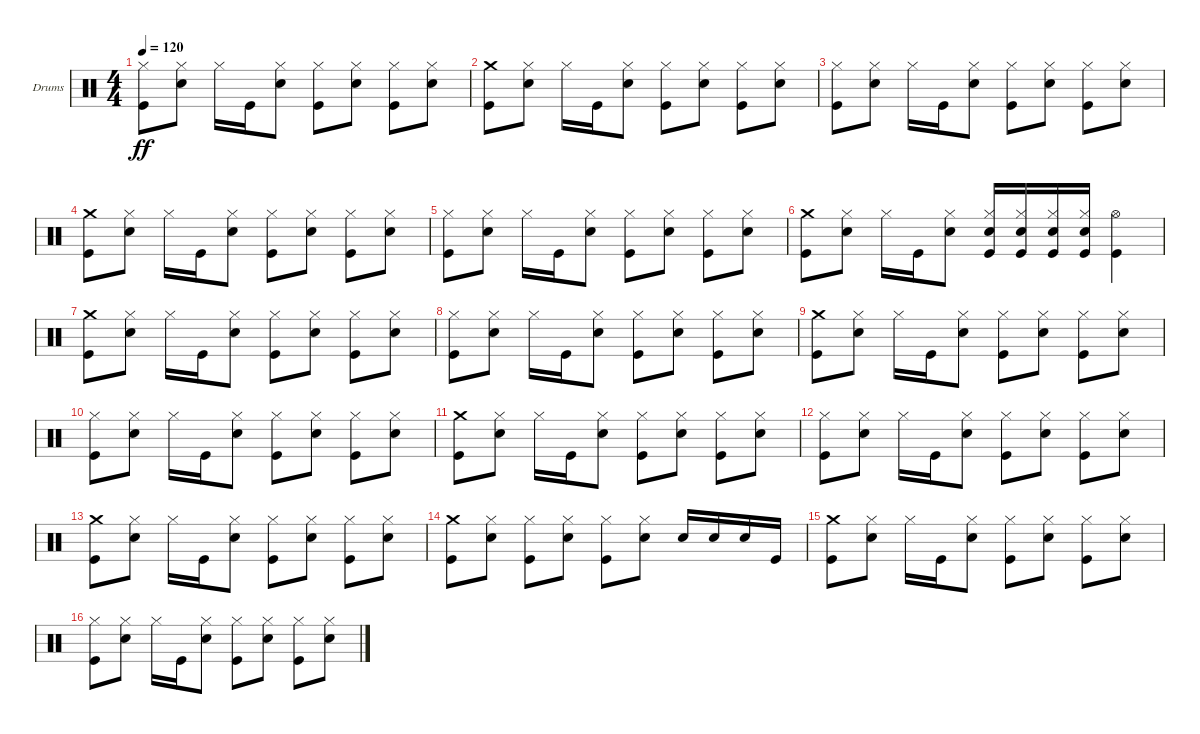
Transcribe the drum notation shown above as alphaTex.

\bracketExtendMode groupsimilarinstruments
\firstSystemTrackNameOrientation horizontal
\otherSystemsTrackNameOrientation horizontal
\track ("Drumkit" "Drums") {instrument percussion}
\staff {score}
\articulation defaults
\ts (4 4)
\tempo 120
\clef neutral
\ks c
("Kick (hit)" "Hi-Hat (closed)").8{dy ff} ("Snare (hit) 2" "Hi-Hat (closed)").8 "Hi-Hat (closed)".16 "Kick (hit)".16 ("Snare (hit) 2" "Hi-Hat (closed)").8 ("Kick (hit)" "Hi-Hat (closed)").8 ("Snare (hit) 2" "Hi-Hat (closed)").8 ("Kick (hit)" "Hi-Hat (closed)").8 ("Snare (hit) 2" "Hi-Hat (closed)").8 |
("Kick (hit)" "Crash medium (hit)").8 ("Snare (hit) 2" "Hi-Hat (closed)").8 "Hi-Hat (closed)".16 "Kick (hit)".16 ("Snare (hit) 2" "Hi-Hat (closed)").8 ("Kick (hit)" "Hi-Hat (closed)").8 ("Snare (hit) 2" "Hi-Hat (closed)").8 ("Kick (hit)" "Hi-Hat (closed)").8 ("Snare (hit) 2" "Hi-Hat (closed)").8 |
("Kick (hit)" "Hi-Hat (closed)").8 ("Snare (hit) 2" "Hi-Hat (closed)").8 "Hi-Hat (closed)".16 "Kick (hit)".16 ("Snare (hit) 2" "Hi-Hat (closed)").8 ("Kick (hit)" "Hi-Hat (closed)").8 ("Snare (hit) 2" "Hi-Hat (closed)").8 ("Kick (hit)" "Hi-Hat (closed)").8 ("Snare (hit) 2" "Hi-Hat (closed)").8 |
("Kick (hit)" "Crash medium (hit)").8 ("Snare (hit) 2" "Hi-Hat (closed)").8 "Hi-Hat (closed)".16 "Kick (hit)".16 ("Snare (hit) 2" "Hi-Hat (closed)").8 ("Kick (hit)" "Hi-Hat (closed)").8 ("Snare (hit) 2" "Hi-Hat (closed)").8 ("Kick (hit)" "Hi-Hat (closed)").8 ("Snare (hit) 2" "Hi-Hat (closed)").8 |
("Kick (hit)" "Hi-Hat (closed)").8 ("Snare (hit) 2" "Hi-Hat (closed)").8 "Hi-Hat (closed)".16 "Kick (hit)".16 ("Snare (hit) 2" "Hi-Hat (closed)").8 ("Kick (hit)" "Hi-Hat (closed)").8 ("Snare (hit) 2" "Hi-Hat (closed)").8 ("Kick (hit)" "Hi-Hat (closed)").8 ("Snare (hit) 2" "Hi-Hat (closed)").8 |
("Kick (hit)" "Crash medium (hit)").8 ("Snare (hit) 2" "Hi-Hat (closed)").8 "Hi-Hat (closed)".16 "Kick (hit)".16 ("Snare (hit) 2" "Hi-Hat (closed)").8 ("Kick (hit)" "Snare (hit) 2" "Hi-Hat (closed)").16 ("Kick (hit)" "Snare (hit) 2" "Hi-Hat (closed)").16 ("Kick (hit)" "Snare (hit) 2" "Hi-Hat (closed)").16 ("Kick (hit)" "Snare (hit) 2" "Hi-Hat (closed)").16 ("Kick (hit)" "Hi-Hat (open)").4 |
("Kick (hit)" "Crash medium (hit)").8 ("Snare (hit) 2" "Hi-Hat (closed)").8 "Hi-Hat (closed)".16 "Kick (hit)".16 ("Snare (hit) 2" "Hi-Hat (closed)").8 ("Kick (hit)" "Hi-Hat (closed)").8 ("Snare (hit) 2" "Hi-Hat (closed)").8 ("Kick (hit)" "Hi-Hat (closed)").8 ("Snare (hit) 2" "Hi-Hat (closed)").8 |
("Kick (hit)" "Hi-Hat (closed)").8 ("Snare (hit) 2" "Hi-Hat (closed)").8 "Hi-Hat (closed)".16 "Kick (hit)".16 ("Snare (hit) 2" "Hi-Hat (closed)").8 ("Kick (hit)" "Hi-Hat (closed)").8 ("Snare (hit) 2" "Hi-Hat (closed)").8 ("Kick (hit)" "Hi-Hat (closed)").8 ("Snare (hit) 2" "Hi-Hat (closed)").8 |
("Kick (hit)" "Crash medium (hit)").8 ("Snare (hit) 2" "Hi-Hat (closed)").8 "Hi-Hat (closed)".16 "Kick (hit)".16 ("Snare (hit) 2" "Hi-Hat (closed)").8 ("Kick (hit)" "Hi-Hat (closed)").8 ("Snare (hit) 2" "Hi-Hat (closed)").8 ("Kick (hit)" "Hi-Hat (closed)").8 ("Snare (hit) 2" "Hi-Hat (closed)").8 |
("Kick (hit)" "Hi-Hat (closed)").8 ("Snare (hit) 2" "Hi-Hat (closed)").8 "Hi-Hat (closed)".16 "Kick (hit)".16 ("Snare (hit) 2" "Hi-Hat (closed)").8 ("Kick (hit)" "Hi-Hat (closed)").8 ("Snare (hit) 2" "Hi-Hat (closed)").8 ("Kick (hit)" "Hi-Hat (closed)").8 ("Snare (hit) 2" "Hi-Hat (closed)").8 |
("Kick (hit)" "Crash medium (hit)").8 ("Snare (hit) 2" "Hi-Hat (closed)").8 "Hi-Hat (closed)".16 "Kick (hit)".16 ("Snare (hit) 2" "Hi-Hat (closed)").8 ("Kick (hit)" "Hi-Hat (closed)").8 ("Snare (hit) 2" "Hi-Hat (closed)").8 ("Kick (hit)" "Hi-Hat (closed)").8 ("Snare (hit) 2" "Hi-Hat (closed)").8 |
("Kick (hit)" "Hi-Hat (closed)").8 ("Snare (hit) 2" "Hi-Hat (closed)").8 "Hi-Hat (closed)".16 "Kick (hit)".16 ("Snare (hit) 2" "Hi-Hat (closed)").8 ("Kick (hit)" "Hi-Hat (closed)").8 ("Snare (hit) 2" "Hi-Hat (closed)").8 ("Kick (hit)" "Hi-Hat (closed)").8 ("Snare (hit) 2" "Hi-Hat (closed)").8 |
("Kick (hit)" "Crash medium (hit)").8 ("Snare (hit) 2" "Hi-Hat (closed)").8 "Hi-Hat (closed)".16 "Kick (hit)".16 ("Snare (hit) 2" "Hi-Hat (closed)").8 ("Kick (hit)" "Hi-Hat (closed)").8 ("Snare (hit) 2" "Hi-Hat (closed)").8 ("Kick (hit)" "Hi-Hat (closed)").8 ("Snare (hit) 2" "Hi-Hat (closed)").8 |
("Kick (hit)" "Crash medium (hit)").8 ("Snare (hit) 2" "Hi-Hat (closed)").8 ("Kick (hit)" "Hi-Hat (closed)").8 ("Snare (hit) 2" "Hi-Hat (closed)").8 ("Kick (hit)" "Hi-Hat (closed)").8 ("Snare (hit) 2" "Hi-Hat (closed)").8 "Snare (hit) 2".16 "Snare (hit) 2".16 "Snare (hit) 2".16 "Kick (hit)".16 |
("Kick (hit)" "Crash medium (hit)").8 ("Snare (hit) 2" "Hi-Hat (closed)").8 "Hi-Hat (closed)".16 "Kick (hit)".16 ("Snare (hit) 2" "Hi-Hat (closed)").8 ("Kick (hit)" "Hi-Hat (closed)").8 ("Snare (hit) 2" "Hi-Hat (closed)").8 ("Kick (hit)" "Hi-Hat (closed)").8 ("Snare (hit) 2" "Hi-Hat (closed)").8 |
("Kick (hit)" "Hi-Hat (closed)").8 ("Snare (hit) 2" "Hi-Hat (closed)").8 "Hi-Hat (closed)".16 "Kick (hit)".16 ("Snare (hit) 2" "Hi-Hat (closed)").8 ("Kick (hit)" "Hi-Hat (closed)").8 ("Snare (hit) 2" "Hi-Hat (closed)").8 ("Kick (hit)" "Hi-Hat (closed)").8 ("Snare (hit) 2" "Hi-Hat (closed)").8
